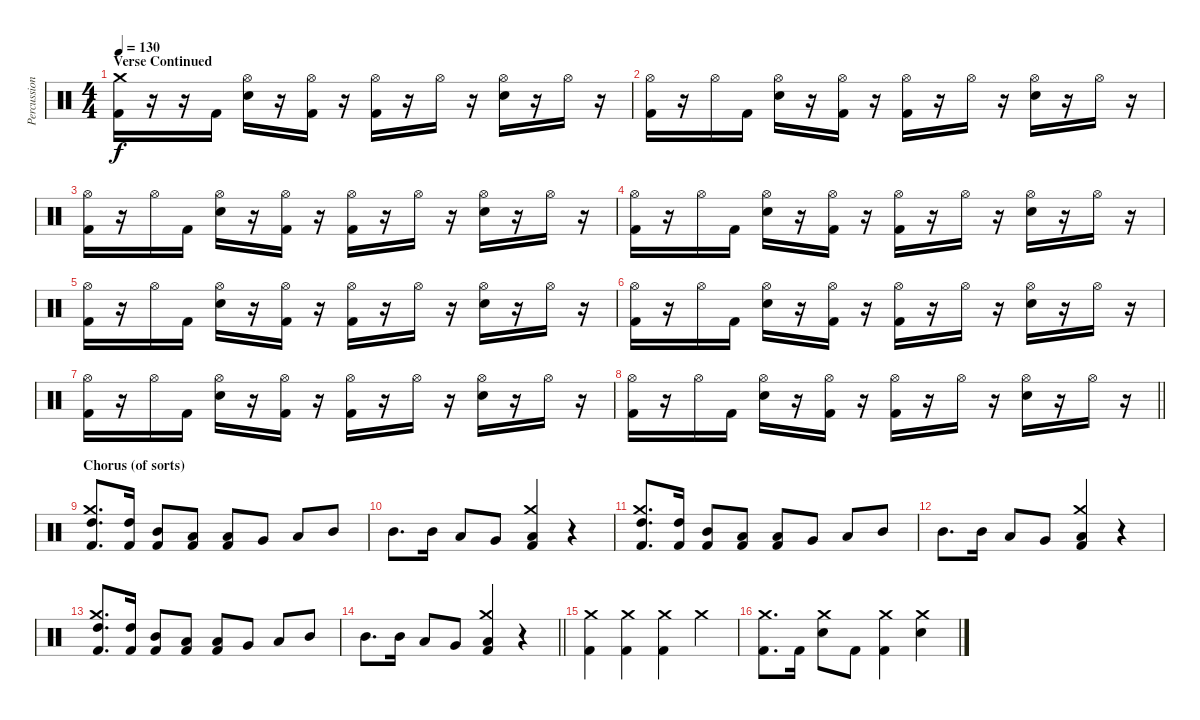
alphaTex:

\track ("Percussion" "Percussion") {instrument percussion}
\staff {score}
\articulation defaults
\ts (4 4)
\section ("" "Verse Continued")
\tempo 130
\clef neutral
\ks c
("Kick (hit) 2" "Crash medium (hit)").16{dy f} r.16 r.16 "Kick (hit) 2".16 ("Electric Snare (hit)" "Hi-Hat (open)").16 r.16 ("Kick (hit) 2" "Hi-Hat (open)").16 r.16 ("Kick (hit) 2" "Hi-Hat (open)").16 r.16 "Hi-Hat (open)".16 r.16 ("Electric Snare (hit)" "Hi-Hat (open)").16 r.16 "Hi-Hat (open)".16 r.16 |
("Kick (hit) 2" "Hi-Hat (open)").16 r.16 "Hi-Hat (open)".16 "Kick (hit) 2".16 ("Electric Snare (hit)" "Hi-Hat (open)").16 r.16 ("Kick (hit) 2" "Hi-Hat (open)").16 r.16 ("Kick (hit) 2" "Hi-Hat (open)").16 r.16 "Hi-Hat (open)".16 r.16 ("Electric Snare (hit)" "Hi-Hat (open)").16 r.16 "Hi-Hat (open)".16 r.16 |
("Kick (hit) 2" "Hi-Hat (open)").16 r.16 "Hi-Hat (open)".16 "Kick (hit) 2".16 ("Electric Snare (hit)" "Hi-Hat (open)").16 r.16 ("Kick (hit) 2" "Hi-Hat (open)").16 r.16 ("Kick (hit) 2" "Hi-Hat (open)").16 r.16 "Hi-Hat (open)".16 r.16 ("Electric Snare (hit)" "Hi-Hat (open)").16 r.16 "Hi-Hat (open)".16 r.16 |
("Kick (hit) 2" "Hi-Hat (open)").16 r.16 "Hi-Hat (open)".16 "Kick (hit) 2".16 ("Electric Snare (hit)" "Hi-Hat (open)").16 r.16 ("Kick (hit) 2" "Hi-Hat (open)").16 r.16 ("Kick (hit) 2" "Hi-Hat (open)").16 r.16 "Hi-Hat (open)".16 r.16 ("Electric Snare (hit)" "Hi-Hat (open)").16 r.16 "Hi-Hat (open)".16 r.16 |
("Kick (hit) 2" "Hi-Hat (open)").16 r.16 "Hi-Hat (open)".16 "Kick (hit) 2".16 ("Electric Snare (hit)" "Hi-Hat (open)").16 r.16 ("Kick (hit) 2" "Hi-Hat (open)").16 r.16 ("Kick (hit) 2" "Hi-Hat (open)").16 r.16 "Hi-Hat (open)".16 r.16 ("Electric Snare (hit)" "Hi-Hat (open)").16 r.16 "Hi-Hat (open)".16 r.16 |
("Kick (hit) 2" "Hi-Hat (open)").16 r.16 "Hi-Hat (open)".16 "Kick (hit) 2".16 ("Electric Snare (hit)" "Hi-Hat (open)").16 r.16 ("Kick (hit) 2" "Hi-Hat (open)").16 r.16 ("Kick (hit) 2" "Hi-Hat (open)").16 r.16 "Hi-Hat (open)".16 r.16 ("Electric Snare (hit)" "Hi-Hat (open)").16 r.16 "Hi-Hat (open)".16 r.16 |
("Kick (hit) 2" "Hi-Hat (open)").16 r.16 "Hi-Hat (open)".16 "Kick (hit) 2".16 ("Electric Snare (hit)" "Hi-Hat (open)").16 r.16 ("Kick (hit) 2" "Hi-Hat (open)").16 r.16 ("Kick (hit) 2" "Hi-Hat (open)").16 r.16 "Hi-Hat (open)".16 r.16 ("Electric Snare (hit)" "Hi-Hat (open)").16 r.16 "Hi-Hat (open)".16 r.16 |
\barLineRight lightlight
("Kick (hit) 2" "Hi-Hat (open)").16 r.16 "Hi-Hat (open)".16 "Kick (hit) 2".16 ("Electric Snare (hit)" "Hi-Hat (open)").16 r.16 ("Kick (hit) 2" "Hi-Hat (open)").16 r.16 ("Kick (hit) 2" "Hi-Hat (open)").16 r.16 "Hi-Hat (open)".16 r.16 ("Electric Snare (hit)" "Hi-Hat (open)").16 r.16 "Hi-Hat (open)".16 r.16 |
\section ("" "Chorus (of sorts)")
("High Tom (hit)" "Crash medium (hit)" "Kick (hit) 2").8{d} ("High Tom (hit)" "Kick (hit) 2").16 ("Mid Tom (hit)" "Kick (hit) 2").8 ("Low Tom (hit)" "Kick (hit) 2").8 ("Low Floor Tom (hit)" "Kick (hit) 2").8 "Very Low Tom (hit)".8 "Low Tom (hit)".8 "Mid Tom (hit)".8 |
"Mid Tom (hit)".8{d} "Mid Tom (hit)".16 "Low Tom (hit)".8 "Very Low Tom (hit)".8 ("Low Floor Tom (hit)" "Crash medium (hit)" "Kick (hit) 2").4 r.4 |
("High Tom (hit)" "Crash medium (hit)" "Kick (hit) 2").8{d} ("High Tom (hit)" "Kick (hit) 2").16 ("Mid Tom (hit)" "Kick (hit) 2").8 ("Low Tom (hit)" "Kick (hit) 2").8 ("Low Floor Tom (hit)" "Kick (hit) 2").8 "Very Low Tom (hit)".8 "Low Tom (hit)".8 "Mid Tom (hit)".8 |
"Mid Tom (hit)".8{d} "Mid Tom (hit)".16 "Low Tom (hit)".8 "Very Low Tom (hit)".8 ("Low Floor Tom (hit)" "Crash medium (hit)" "Kick (hit) 2").4 r.4 |
("High Tom (hit)" "Crash medium (hit)" "Kick (hit) 2").8{d} ("High Tom (hit)" "Kick (hit) 2").16 ("Mid Tom (hit)" "Kick (hit) 2").8 ("Low Tom (hit)" "Kick (hit) 2").8 ("Low Floor Tom (hit)" "Kick (hit) 2").8 "Very Low Tom (hit)".8 "Low Tom (hit)".8 "Mid Tom (hit)".8 |
\barLineRight lightlight "Mid Tom (hit)".8{d} "Mid Tom (hit)".16 "Low Tom (hit)".8 "Very Low Tom (hit)".8
("Low Floor Tom (hit)" "Crash medium (hit)" "Kick (hit) 2").4 r.4 |
\section ("" "")
("Kick (hit) 2" "Crash medium (hit)").4 ("Kick (hit) 2" "Crash medium (hit)").4 ("Kick (hit) 2" "Crash medium (hit)").4 "Crash medium (hit)".4 |
("Kick (hit) 2" "Crash medium (hit)").8{d} "Kick (hit) 2".16 ("Electric Snare (hit)" "Crash medium (hit)").8 "Kick (hit) 2".8 ("Kick (hit) 2" "Crash medium (hit)").4 ("Electric Snare (hit)" "Crash medium (hit)").4
